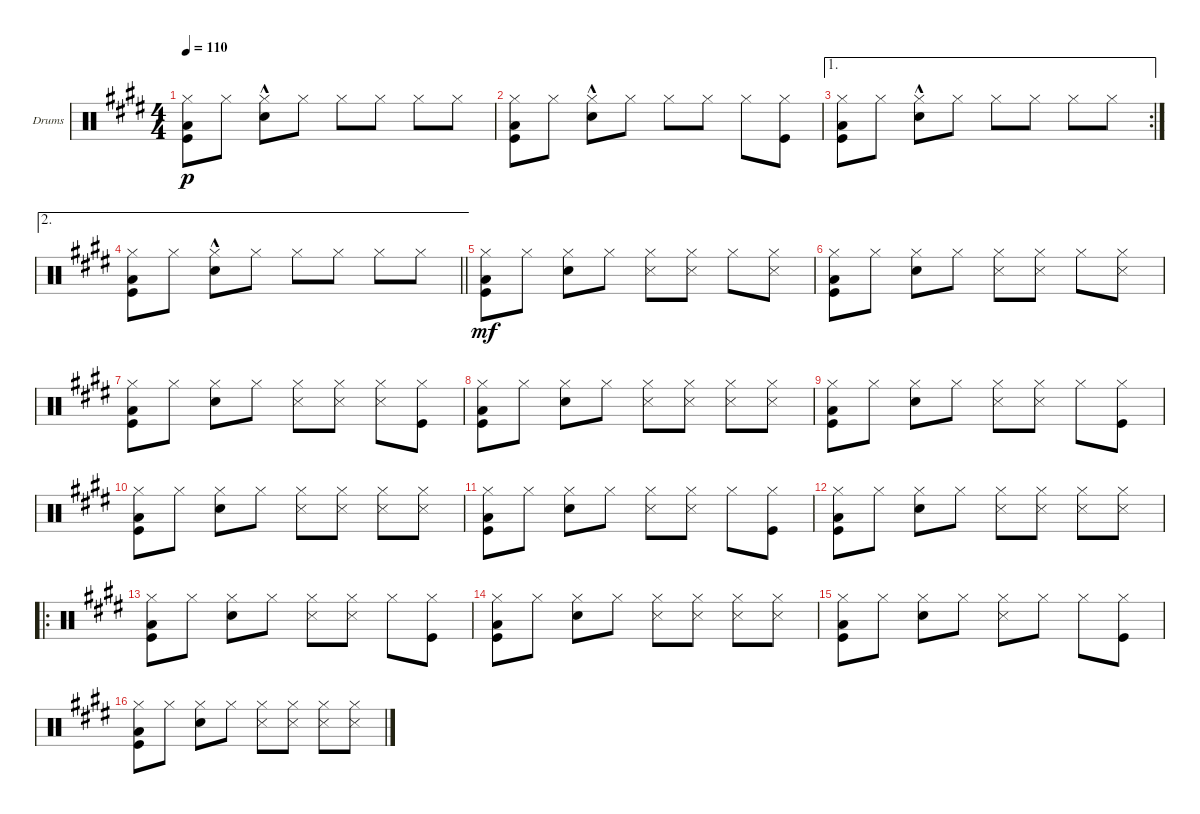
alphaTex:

\defaultSystemsLayout 4
\bracketExtendMode groupsimilarinstruments
\firstSystemTrackNameOrientation horizontal
\otherSystemsTrackNameOrientation horizontal
\track ("Drumkit" "Drums") {instrument percussion}
\staff {score}
\articulation defaults
\ts (4 4)
\tempo 110
\clef neutral
\ks c#minor
("Kick (hit)" "Hi-Hat (closed)" "Low Tom (hit)").8{dy p} "Hi-Hat (closed)".8 ("Hi-Hat (closed)" "Snare (hit) 2"{hac}).8 "Hi-Hat (closed)".8 "Hi-Hat (closed)".8 "Hi-Hat (closed)".8 "Hi-Hat (closed)".8 "Hi-Hat (closed)".8 |
("Kick (hit)" "Hi-Hat (closed)" "Low Tom (hit)").8 "Hi-Hat (closed)".8 ("Hi-Hat (closed)" "Snare (hit) 2"{hac}).8 "Hi-Hat (closed)".8 "Hi-Hat (closed)".8 "Hi-Hat (closed)".8 "Hi-Hat (closed)".8 ("Hi-Hat (closed)" "Kick (hit)").8 |
\ae 1
\rc 2
("Kick (hit)" "Hi-Hat (closed)" "Low Tom (hit)").8 "Hi-Hat (closed)".8 ("Hi-Hat (closed)" "Snare (hit) 2"{hac}).8 "Hi-Hat (closed)".8 "Hi-Hat (closed)".8 "Hi-Hat (closed)".8 "Hi-Hat (closed)".8 "Hi-Hat (closed)".8 |
\ae 2
\barLineRight lightlight
("Kick (hit)" "Hi-Hat (closed)" "Low Tom (hit)").8 "Hi-Hat (closed)".8 ("Hi-Hat (closed)" "Snare (hit) 2"{hac}).8 "Hi-Hat (closed)".8 "Hi-Hat (closed)".8 "Hi-Hat (closed)".8 "Hi-Hat (closed)".8 "Hi-Hat (closed)".8 |
("Kick (hit)" "Hi-Hat (closed)" "Low Tom (hit)").8{dy mf} "Hi-Hat (closed)".8 ("Hi-Hat (closed)" "Snare (hit) 2").8 "Hi-Hat (closed)".8 ("Hi-Hat (closed)" "Snare (side stick) 3").8 ("Hi-Hat (closed)" "Snare (side stick) 3").8 "Hi-Hat (closed)".8 ("Hi-Hat (closed)" "Snare (side stick) 3").8 |
("Hi-Hat (closed)" "Kick (hit)" "Low Tom (hit)").8 "Hi-Hat (closed)".8 ("Hi-Hat (closed)" "Snare (hit) 2").8 "Hi-Hat (closed)".8 ("Hi-Hat (closed)" "Snare (side stick) 3").8 ("Hi-Hat (closed)" "Snare (side stick) 3").8 "Hi-Hat (closed)".8 ("Hi-Hat (closed)" "Snare (side stick) 3").8 |
("Hi-Hat (closed)" "Kick (hit)" "Low Tom (hit)").8 "Hi-Hat (closed)".8 ("Hi-Hat (closed)" "Snare (hit) 2").8 "Hi-Hat (closed)".8 ("Hi-Hat (closed)" "Snare (side stick) 3").8 ("Hi-Hat (closed)" "Snare (side stick) 3").8 ("Hi-Hat (closed)" "Snare (side stick) 3").8 ("Hi-Hat (closed)" "Kick (hit)").8 |
("Hi-Hat (closed)" "Kick (hit)" "Low Tom (hit)").8 "Hi-Hat (closed)".8 ("Hi-Hat (closed)" "Snare (hit) 2").8 "Hi-Hat (closed)".8 ("Hi-Hat (closed)" "Snare (side stick) 3").8 ("Hi-Hat (closed)" "Snare (side stick) 3").8 ("Hi-Hat (closed)" "Snare (side stick) 3").8 ("Hi-Hat (closed)" "Snare (side stick) 3").8 |
("Hi-Hat (closed)" "Kick (hit)" "Low Tom (hit)").8 "Hi-Hat (closed)".8 ("Hi-Hat (closed)" "Snare (hit) 2").8 "Hi-Hat (closed)".8 ("Hi-Hat (closed)" "Snare (side stick) 3").8 ("Hi-Hat (closed)" "Snare (side stick) 3").8 "Hi-Hat (closed)".8 ("Hi-Hat (closed)" "Kick (hit)").8 |
("Hi-Hat (closed)" "Kick (hit)" "Low Tom (hit)").8 "Hi-Hat (closed)".8 ("Hi-Hat (closed)" "Snare (hit) 2").8 "Hi-Hat (closed)".8 ("Hi-Hat (closed)" "Snare (side stick) 3").8 ("Hi-Hat (closed)" "Snare (side stick) 3").8 ("Hi-Hat (closed)" "Snare (side stick) 3").8 ("Hi-Hat (closed)" "Snare (side stick) 3").8 |
("Hi-Hat (closed)" "Kick (hit)" "Low Tom (hit)").8 "Hi-Hat (closed)".8 ("Hi-Hat (closed)" "Snare (hit) 2").8 "Hi-Hat (closed)".8 ("Hi-Hat (closed)" "Snare (side stick) 3").8 ("Hi-Hat (closed)" "Snare (side stick) 3").8 "Hi-Hat (closed)".8 ("Hi-Hat (closed)" "Kick (hit)").8 |
("Hi-Hat (closed)" "Kick (hit)" "Low Tom (hit)").8 "Hi-Hat (closed)".8 ("Hi-Hat (closed)" "Snare (hit) 2").8 "Hi-Hat (closed)".8 ("Hi-Hat (closed)" "Snare (side stick) 3").8 ("Hi-Hat (closed)" "Snare (side stick) 3").8 ("Hi-Hat (closed)" "Snare (side stick) 3").8 ("Hi-Hat (closed)" "Snare (side stick) 3").8 |
\ro
("Hi-Hat (closed)" "Kick (hit)" "Low Tom (hit)").8 "Hi-Hat (closed)".8 ("Hi-Hat (closed)" "Snare (hit) 2").8 "Hi-Hat (closed)".8 ("Hi-Hat (closed)" "Snare (side stick) 3").8 ("Hi-Hat (closed)" "Snare (side stick) 3").8 "Hi-Hat (closed)".8 ("Hi-Hat (closed)" "Kick (hit)").8 |
("Hi-Hat (closed)" "Kick (hit)" "Low Tom (hit)").8 "Hi-Hat (closed)".8 ("Hi-Hat (closed)" "Snare (hit) 2").8 "Hi-Hat (closed)".8 ("Hi-Hat (closed)" "Snare (side stick) 3").8 ("Hi-Hat (closed)" "Snare (side stick) 3").8 ("Hi-Hat (closed)" "Snare (side stick) 3").8 ("Hi-Hat (closed)" "Snare (side stick) 3").8 |
("Hi-Hat (closed)" "Kick (hit)" "Low Tom (hit)").8 "Hi-Hat (closed)".8 ("Hi-Hat (closed)" "Snare (hit) 2").8 "Hi-Hat (closed)".8 ("Hi-Hat (closed)" "Snare (side stick) 3").8 "Hi-Hat (closed)".8 "Hi-Hat (closed)".8 ("Hi-Hat (closed)" "Kick (hit)").8 |
("Hi-Hat (closed)" "Kick (hit)" "Low Tom (hit)").8 "Hi-Hat (closed)".8 ("Hi-Hat (closed)" "Snare (hit) 2").8 "Hi-Hat (closed)".8 ("Hi-Hat (closed)" "Snare (side stick) 3").8 ("Hi-Hat (closed)" "Snare (side stick) 3").8 ("Hi-Hat (closed)" "Snare (side stick) 3").8 ("Hi-Hat (closed)" "Snare (side stick) 3").8
